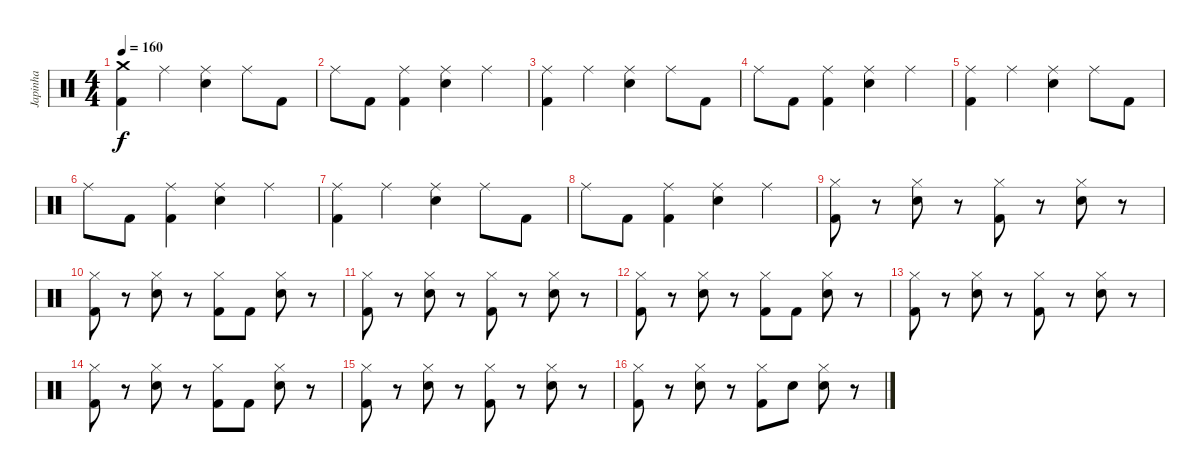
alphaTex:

\track ("Japinha" "Japinha") {instrument percussion}
\staff {score}
\articulation defaults
\ts (4 4)
\tempo 160
\clef neutral
\ks c
("Crash medium (hit)" "Kick (hit) 2").4{dy f} "Ride (middle)".4 ("Ride (middle)" "Snare (hit) 2").4 "Ride (middle)".8 "Kick (hit) 2".8 |
"Ride (middle)".8 "Kick (hit) 2".8 ("Ride (middle)" "Kick (hit) 2").4 ("Ride (middle)" "Snare (hit) 2").4 "Ride (middle)".4 |
("Ride (middle)" "Kick (hit) 2").4 "Ride (middle)".4 ("Ride (middle)" "Snare (hit) 2").4 "Ride (middle)".8 "Kick (hit) 2".8 |
"Ride (middle)".8 "Kick (hit) 2".8 ("Ride (middle)" "Kick (hit) 2").4 ("Ride (middle)" "Snare (hit) 2").4 "Ride (middle)".4 |
("Ride (middle)" "Kick (hit) 2").4 "Ride (middle)".4 ("Ride (middle)" "Snare (hit) 2").4 "Ride (middle)".8 "Kick (hit) 2".8 |
"Ride (middle)".8 "Kick (hit) 2".8 ("Ride (middle)" "Kick (hit) 2").4 ("Ride (middle)" "Snare (hit) 2").4 "Ride (middle)".4 |
("Ride (middle)" "Kick (hit) 2").4 "Ride (middle)".4 ("Ride (middle)" "Snare (hit) 2").4 "Ride (middle)".8 "Kick (hit) 2".8 |
"Ride (middle)".8 "Kick (hit) 2".8 ("Ride (middle)" "Kick (hit) 2").4 ("Ride (middle)" "Snare (hit) 2").4 "Ride (middle)".4 |
("Hi-Hat (closed)" "Kick (hit) 2").8 r.8 ("Hi-Hat (closed)" "Snare (hit) 2").8 r.8 ("Hi-Hat (closed)" "Kick (hit) 2").8 r.8 ("Hi-Hat (closed)" "Snare (hit) 2").8 r.8 |
("Hi-Hat (closed)" "Kick (hit) 2").8 r.8 ("Hi-Hat (closed)" "Snare (hit) 2").8 r.8 ("Hi-Hat (closed)" "Kick (hit) 2").8 "Kick (hit) 2".8 ("Hi-Hat (closed)" "Snare (hit) 2").8 r.8 |
("Hi-Hat (closed)" "Kick (hit) 2").8 r.8 ("Hi-Hat (closed)" "Snare (hit) 2").8 r.8 ("Hi-Hat (closed)" "Kick (hit) 2").8 r.8 ("Hi-Hat (closed)" "Snare (hit) 2").8 r.8 |
("Hi-Hat (closed)" "Kick (hit) 2").8 r.8 ("Hi-Hat (closed)" "Snare (hit) 2").8 r.8 ("Hi-Hat (closed)" "Kick (hit) 2").8 "Kick (hit) 2".8 ("Hi-Hat (closed)" "Snare (hit) 2").8 r.8 |
("Hi-Hat (closed)" "Kick (hit) 2").8 r.8 ("Hi-Hat (closed)" "Snare (hit) 2").8 r.8 ("Hi-Hat (closed)" "Kick (hit) 2").8 r.8 ("Hi-Hat (closed)" "Snare (hit) 2").8 r.8 |
("Hi-Hat (closed)" "Kick (hit) 2").8 r.8 ("Hi-Hat (closed)" "Snare (hit) 2").8 r.8 ("Hi-Hat (closed)" "Kick (hit) 2").8 "Kick (hit) 2".8 ("Hi-Hat (closed)" "Snare (hit) 2").8 r.8 |
("Hi-Hat (closed)" "Kick (hit) 2").8 r.8 ("Hi-Hat (closed)" "Snare (hit) 2").8 r.8 ("Hi-Hat (closed)" "Kick (hit) 2").8 r.8 ("Hi-Hat (closed)" "Snare (hit) 2").8 r.8 |
("Hi-Hat (closed)" "Kick (hit) 2").8 r.8 ("Hi-Hat (closed)" "Snare (hit) 2").8 r.8 ("Hi-Hat (closed)" "Kick (hit) 2").8 "Snare (hit) 2".8 ("Hi-Hat (closed)" "Snare (hit) 2").8 r.8
